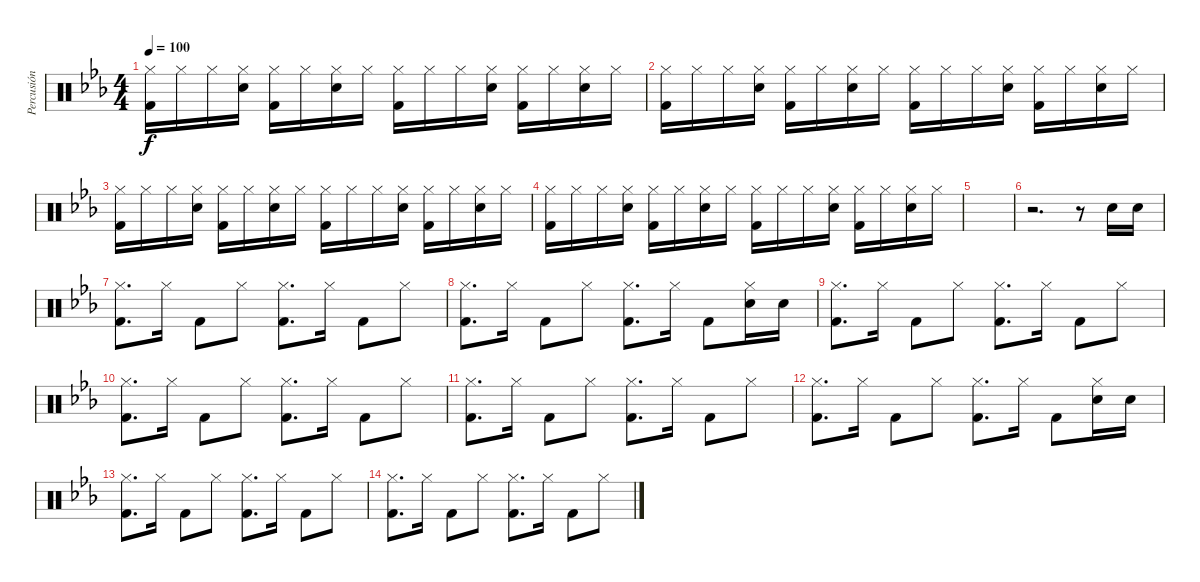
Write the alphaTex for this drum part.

\track ("Percusión" "Percusión") {instrument percussion}
\staff {score}
\articulation defaults
\ts (4 4)
\tempo 100
\clef neutral
\ks eb
("Hi-Hat (closed)" "Kick (hit) 2").16{dy f} "Hi-Hat (closed)".16 "Hi-Hat (closed)".16 ("Hi-Hat (closed)" "Electric Snare (hit)").16 ("Hi-Hat (closed)" "Kick (hit) 2").16 "Hi-Hat (closed)".16 ("Hi-Hat (closed)" "Electric Snare (hit)").16 "Hi-Hat (closed)".16 ("Hi-Hat (closed)" "Kick (hit) 2").16 "Hi-Hat (closed)".16 "Hi-Hat (closed)".16 ("Hi-Hat (closed)" "Electric Snare (hit)").16 ("Hi-Hat (closed)" "Kick (hit) 2").16 "Hi-Hat (closed)".16 ("Hi-Hat (closed)" "Electric Snare (hit)").16 "Hi-Hat (closed)".16 |
("Hi-Hat (closed)" "Kick (hit) 2").16 "Hi-Hat (closed)".16 "Hi-Hat (closed)".16 ("Hi-Hat (closed)" "Electric Snare (hit)").16 ("Hi-Hat (closed)" "Kick (hit) 2").16 "Hi-Hat (closed)".16 ("Hi-Hat (closed)" "Electric Snare (hit)").16 "Hi-Hat (closed)".16 ("Hi-Hat (closed)" "Kick (hit) 2").16 "Hi-Hat (closed)".16 "Hi-Hat (closed)".16 ("Hi-Hat (closed)" "Electric Snare (hit)").16 ("Hi-Hat (closed)" "Kick (hit) 2").16 "Hi-Hat (closed)".16 ("Hi-Hat (closed)" "Electric Snare (hit)").16 "Hi-Hat (closed)".16 |
("Hi-Hat (closed)" "Kick (hit) 2").16 "Hi-Hat (closed)".16 "Hi-Hat (closed)".16 ("Hi-Hat (closed)" "Electric Snare (hit)").16 ("Hi-Hat (closed)" "Kick (hit) 2").16 "Hi-Hat (closed)".16 ("Hi-Hat (closed)" "Electric Snare (hit)").16 "Hi-Hat (closed)".16 ("Hi-Hat (closed)" "Kick (hit) 2").16 "Hi-Hat (closed)".16 "Hi-Hat (closed)".16 ("Hi-Hat (closed)" "Electric Snare (hit)").16 ("Hi-Hat (closed)" "Kick (hit) 2").16 "Hi-Hat (closed)".16 ("Hi-Hat (closed)" "Electric Snare (hit)").16 "Hi-Hat (closed)".16 |
("Hi-Hat (closed)" "Kick (hit) 2").16 "Hi-Hat (closed)".16 "Hi-Hat (closed)".16 ("Hi-Hat (closed)" "Electric Snare (hit)").16 ("Hi-Hat (closed)" "Kick (hit) 2").16 "Hi-Hat (closed)".16 ("Hi-Hat (closed)" "Electric Snare (hit)").16 "Hi-Hat (closed)".16 ("Hi-Hat (closed)" "Kick (hit) 2").16 "Hi-Hat (closed)".16 "Hi-Hat (closed)".16 ("Hi-Hat (closed)" "Electric Snare (hit)").16 ("Hi-Hat (closed)" "Kick (hit) 2").16 "Hi-Hat (closed)".16 ("Hi-Hat (closed)" "Electric Snare (hit)").16 "Hi-Hat (closed)".16 |
|
r.2{d} r.8 "Electric Snare (hit)".16 "Electric Snare (hit)".16 |
("Hi-Hat (closed)" "Kick (hit) 2").8{d} "Hi-Hat (closed)".16 "Kick (hit) 2".8 "Hi-Hat (closed)".8 ("Hi-Hat (closed)" "Kick (hit) 2").8{d} "Hi-Hat (closed)".16 "Kick (hit) 2".8 "Hi-Hat (closed)".8 |
("Hi-Hat (closed)" "Kick (hit) 2").8{d} "Hi-Hat (closed)".16 "Kick (hit) 2".8 "Hi-Hat (closed)".8 ("Hi-Hat (closed)" "Kick (hit) 2").8{d} "Hi-Hat (closed)".16 "Kick (hit) 2".8 ("Hi-Hat (closed)" "Electric Snare (hit)").16 "Electric Snare (hit)".16 |
("Hi-Hat (closed)" "Kick (hit) 2").8{d} "Hi-Hat (closed)".16 "Kick (hit) 2".8 "Hi-Hat (closed)".8 ("Hi-Hat (closed)" "Kick (hit) 2").8{d} "Hi-Hat (closed)".16 "Kick (hit) 2".8 "Hi-Hat (closed)".8 |
("Hi-Hat (closed)" "Kick (hit) 2").8{d} "Hi-Hat (closed)".16 "Kick (hit) 2".8 "Hi-Hat (closed)".8 ("Hi-Hat (closed)" "Kick (hit) 2").8{d} "Hi-Hat (closed)".16 "Kick (hit) 2".8 "Hi-Hat (closed)".8 |
("Hi-Hat (closed)" "Kick (hit) 2").8{d} "Hi-Hat (closed)".16 "Kick (hit) 2".8 "Hi-Hat (closed)".8 ("Hi-Hat (closed)" "Kick (hit) 2").8{d} "Hi-Hat (closed)".16 "Kick (hit) 2".8 "Hi-Hat (closed)".8 |
("Hi-Hat (closed)" "Kick (hit) 2").8{d} "Hi-Hat (closed)".16 "Kick (hit) 2".8 "Hi-Hat (closed)".8 ("Hi-Hat (closed)" "Kick (hit) 2").8{d} "Hi-Hat (closed)".16 "Kick (hit) 2".8 ("Hi-Hat (closed)" "Electric Snare (hit)").16 "Electric Snare (hit)".16 |
("Hi-Hat (closed)" "Kick (hit) 2").8{d} "Hi-Hat (closed)".16 "Kick (hit) 2".8 "Hi-Hat (closed)".8 ("Hi-Hat (closed)" "Kick (hit) 2").8{d} "Hi-Hat (closed)".16 "Kick (hit) 2".8 "Hi-Hat (closed)".8 |
("Hi-Hat (closed)" "Kick (hit) 2").8{d} "Hi-Hat (closed)".16 "Kick (hit) 2".8 "Hi-Hat (closed)".8 ("Hi-Hat (closed)" "Kick (hit) 2").8{d} "Hi-Hat (closed)".16 "Kick (hit) 2".8 "Hi-Hat (closed)".8
